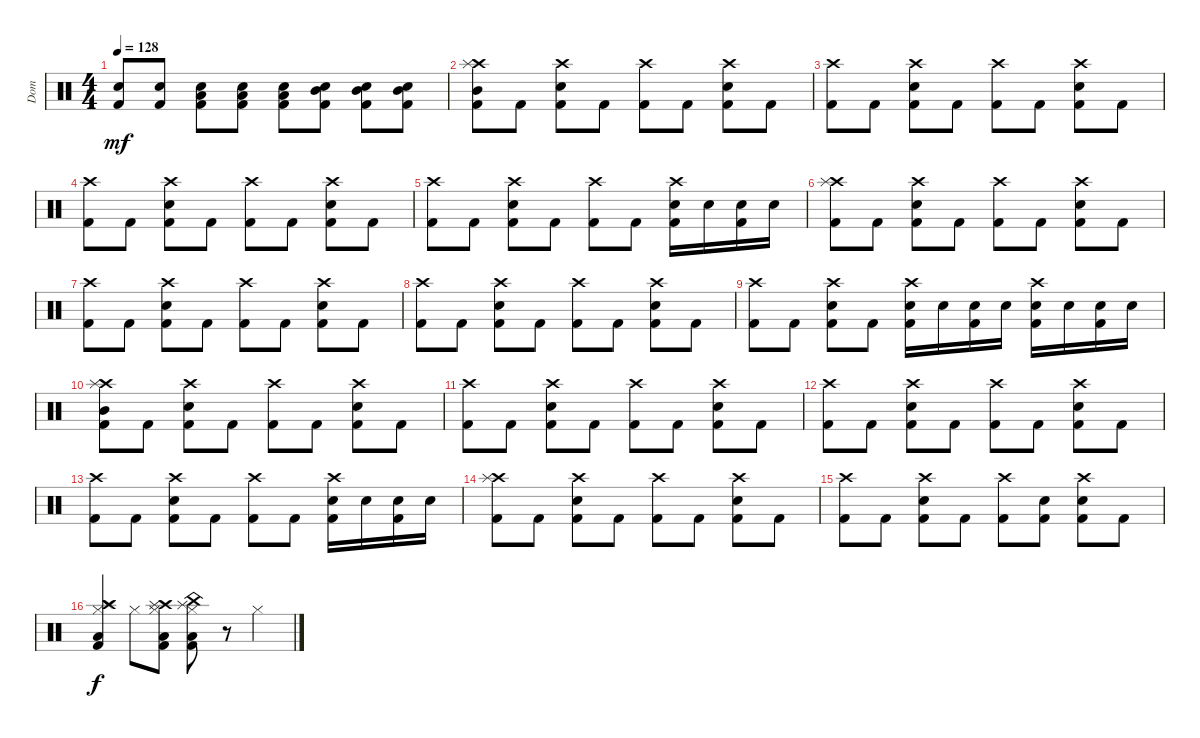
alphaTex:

\track ("Dom " "Dom ") {instrument percussion}
\staff {score}
\articulation defaults
\ts (4 4)
\tempo 128
\clef neutral
\ks c
("Electric Snare (hit)" "Kick (hit) 2").8{dy mf} ("Electric Snare (hit)" "Kick (hit) 2").8 ("Electric Snare (hit)" "Low Tom (hit)" "Kick (hit) 2").8 ("Electric Snare (hit)" "Low Tom (hit)" "Kick (hit) 2").8 ("Electric Snare (hit)" "Low Tom (hit)" "Kick (hit) 2").8 ("Electric Snare (hit)" "Mid Tom (hit)" "Kick (hit) 2").8 ("Electric Snare (hit)" "Mid Tom (hit)" "Kick (hit) 2").8 ("Electric Snare (hit)" "Mid Tom (hit)" "Kick (hit) 2").8 |
("Crash high (hit)" "Mid Tom (hit)" "Splash (hit)" "Kick (hit) 2").8 "Kick (hit) 2".8 ("Crash high (hit)" "Electric Snare (hit)" "Kick (hit) 2").8 "Kick (hit) 2".8 ("Crash high (hit)" "Kick (hit) 2").8 "Kick (hit) 2".8 ("Crash high (hit)" "Electric Snare (hit)" "Kick (hit) 2").8 "Kick (hit) 2".8 |
("Crash high (hit)" "Kick (hit) 2").8 "Kick (hit) 2".8 ("Crash high (hit)" "Electric Snare (hit)" "Kick (hit) 2").8 "Kick (hit) 2".8 ("Crash high (hit)" "Kick (hit) 2").8 "Kick (hit) 2".8 ("Crash high (hit)" "Electric Snare (hit)" "Kick (hit) 2").8 "Kick (hit) 2".8 |
("Crash high (hit)" "Kick (hit) 2").8 "Kick (hit) 2".8 ("Crash high (hit)" "Electric Snare (hit)" "Kick (hit) 2").8 "Kick (hit) 2".8 ("Crash high (hit)" "Kick (hit) 2").8 "Kick (hit) 2".8 ("Crash high (hit)" "Electric Snare (hit)" "Kick (hit) 2").8 "Kick (hit) 2".8 |
("Crash high (hit)" "Kick (hit) 2").8 "Kick (hit) 2".8 ("Crash high (hit)" "Electric Snare (hit)" "Kick (hit) 2").8 "Kick (hit) 2".8 ("Crash high (hit)" "Kick (hit) 2").8 "Kick (hit) 2".8 ("Crash high (hit)" "Electric Snare (hit)" "Kick (hit) 2").16 "Electric Snare (hit)".16 ("Electric Snare (hit)" "Kick (hit) 2").16 "Electric Snare (hit)".16 |
("Crash high (hit)" "Splash (hit)" "Kick (hit) 2").8 "Kick (hit) 2".8 ("Crash high (hit)" "Electric Snare (hit)" "Kick (hit) 2").8 "Kick (hit) 2".8 ("Crash high (hit)" "Kick (hit) 2").8 "Kick (hit) 2".8 ("Crash high (hit)" "Electric Snare (hit)" "Kick (hit) 2").8 "Kick (hit) 2".8 |
("Crash high (hit)" "Kick (hit) 2").8 "Kick (hit) 2".8 ("Crash high (hit)" "Electric Snare (hit)" "Kick (hit) 2").8 "Kick (hit) 2".8 ("Crash high (hit)" "Kick (hit) 2").8 "Kick (hit) 2".8 ("Crash high (hit)" "Electric Snare (hit)" "Kick (hit) 2").8 "Kick (hit) 2".8 |
("Crash high (hit)" "Kick (hit) 2").8 "Kick (hit) 2".8 ("Crash high (hit)" "Electric Snare (hit)" "Kick (hit) 2").8 "Kick (hit) 2".8 ("Crash high (hit)" "Kick (hit) 2").8 "Kick (hit) 2".8 ("Crash high (hit)" "Electric Snare (hit)" "Kick (hit) 2").8 "Kick (hit) 2".8 |
("Crash high (hit)" "Kick (hit) 2").8 "Kick (hit) 2".8 ("Crash high (hit)" "Electric Snare (hit)" "Kick (hit) 2").8 "Kick (hit) 2".8 ("Crash high (hit)" "Electric Snare (hit)" "Kick (hit) 2").16 "Electric Snare (hit)".16 ("Electric Snare (hit)" "Kick (hit) 2").16 "Electric Snare (hit)".16 ("Crash high (hit)" "Electric Snare (hit)" "Kick (hit) 2").16 "Electric Snare (hit)".16 ("Electric Snare (hit)" "Kick (hit) 2").16 "Electric Snare (hit)".16 |
("Crash high (hit)" "Mid Tom (hit)" "Splash (hit)" "Kick (hit) 2").8 "Kick (hit) 2".8 ("Crash high (hit)" "Electric Snare (hit)" "Kick (hit) 2").8 "Kick (hit) 2".8 ("Crash high (hit)" "Kick (hit) 2").8 "Kick (hit) 2".8 ("Crash high (hit)" "Electric Snare (hit)" "Kick (hit) 2").8 "Kick (hit) 2".8 |
("Crash high (hit)" "Kick (hit) 2").8 "Kick (hit) 2".8 ("Crash high (hit)" "Electric Snare (hit)" "Kick (hit) 2").8 "Kick (hit) 2".8 ("Crash high (hit)" "Kick (hit) 2").8 "Kick (hit) 2".8 ("Crash high (hit)" "Electric Snare (hit)" "Kick (hit) 2").8 "Kick (hit) 2".8 |
("Crash high (hit)" "Kick (hit) 2").8 "Kick (hit) 2".8 ("Crash high (hit)" "Electric Snare (hit)" "Kick (hit) 2").8 "Kick (hit) 2".8 ("Crash high (hit)" "Kick (hit) 2").8 "Kick (hit) 2".8 ("Crash high (hit)" "Electric Snare (hit)" "Kick (hit) 2").8 "Kick (hit) 2".8 |
("Crash high (hit)" "Kick (hit) 2").8 "Kick (hit) 2".8 ("Crash high (hit)" "Electric Snare (hit)" "Kick (hit) 2").8 "Kick (hit) 2".8 ("Crash high (hit)" "Kick (hit) 2").8 "Kick (hit) 2".8 ("Crash high (hit)" "Electric Snare (hit)" "Kick (hit) 2").16 "Electric Snare (hit)".16 ("Electric Snare (hit)" "Kick (hit) 2").16 "Electric Snare (hit)".16 |
("Crash high (hit)" "Splash (hit)" "Kick (hit) 2").8 "Kick (hit) 2".8 ("Crash high (hit)" "Electric Snare (hit)" "Kick (hit) 2").8 "Kick (hit) 2".8 ("Crash high (hit)" "Kick (hit) 2").8 "Kick (hit) 2".8 ("Crash high (hit)" "Electric Snare (hit)" "Kick (hit) 2").8 "Kick (hit) 2".8 |
("Crash high (hit)" "Kick (hit) 2").8 "Kick (hit) 2".8 ("Crash high (hit)" "Electric Snare (hit)" "Kick (hit) 2").8 "Kick (hit) 2".8 ("Crash high (hit)" "Kick (hit) 2").8 ("Electric Snare (hit)" "Kick (hit) 2").8 ("Crash high (hit)" "Electric Snare (hit)" "Kick (hit) 2").8 "Kick (hit) 2".8 |
("Hi-Hat (closed)" "Crash high (hit)" "Splash (hit)" "Low Floor Tom (hit)" "Kick (hit) 2").4{dy f} "Hi-Hat (closed)".8 ("Hi-Hat (closed)" "Crash high (hit)" "Splash (hit)" "Low Floor Tom (hit)" "Kick (hit) 2").8 ("Hi-Hat (closed)" "Splash (hit)" "China (hit)" "Low Floor Tom (hit)" "Kick (hit) 2").8 r.8 "Hi-Hat (closed)".4
